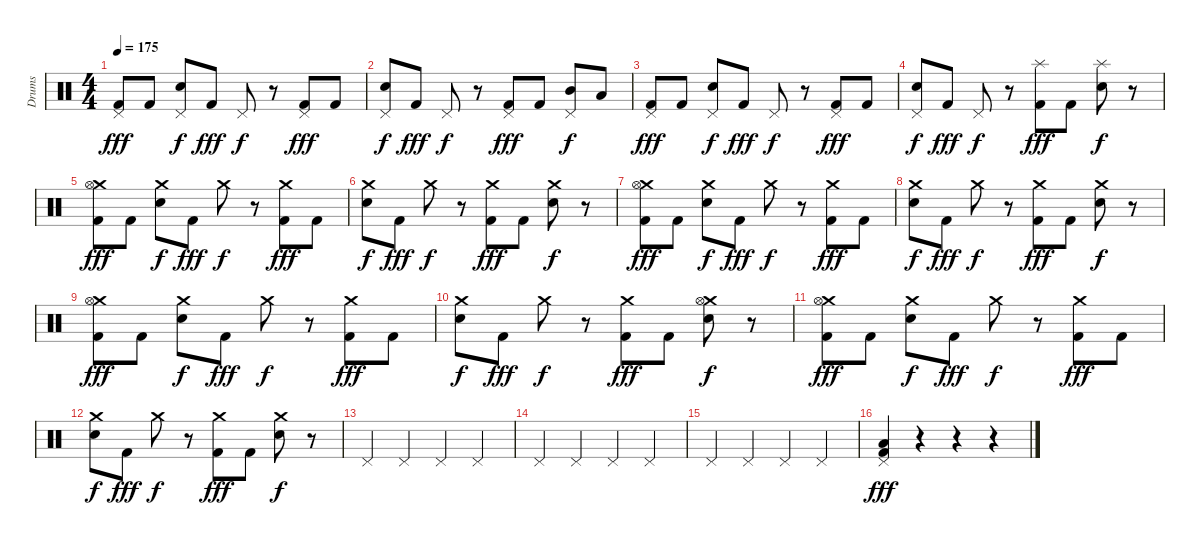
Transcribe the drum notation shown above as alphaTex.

\track ("Drums" "Drums") {instrument percussion}
\staff {score}
\articulation defaults
\ts (4 4)
\tempo 175
\clef neutral
\ks c
("Pedal Hi-Hat (hit)" "Kick (hit) 2").8{dy fff} "Kick (hit) 2".8 ("Pedal Hi-Hat (hit)" "Electric Snare (hit)").8{dy f} "Kick (hit) 2".8{dy fff} "Pedal Hi-Hat (hit)".8{dy f} r.8 ("Pedal Hi-Hat (hit)" "Kick (hit) 2").8{dy fff} "Kick (hit) 2".8 |
("Pedal Hi-Hat (hit)" "Electric Snare (hit)").8{dy f} "Kick (hit) 2".8{dy fff} "Pedal Hi-Hat (hit)".8{dy f} r.8 ("Pedal Hi-Hat (hit)" "Kick (hit) 2").8{dy fff} "Kick (hit) 2".8 ("Pedal Hi-Hat (hit)" "Mid Tom (hit)").8{dy f} "Low Tom (hit)".8 |
("Pedal Hi-Hat (hit)" "Kick (hit) 2").8{dy fff} "Kick (hit) 2".8 ("Pedal Hi-Hat (hit)" "Electric Snare (hit)").8{dy f} "Kick (hit) 2".8{dy fff} "Pedal Hi-Hat (hit)".8{dy f} r.8 ("Pedal Hi-Hat (hit)" "Kick (hit) 2").8{dy fff} "Kick (hit) 2".8 |
("Pedal Hi-Hat (hit)" "Electric Snare (hit)").8{dy f} "Kick (hit) 2".8{dy fff} "Pedal Hi-Hat (hit)".8{dy f} r.8 ("Splash (hit)" "Kick (hit) 2").8{dy fff} "Kick (hit) 2".8 ("Splash (hit)" "Electric Snare (hit)").8{dy f} r.8 |
("Crash medium (hit)" "Hi-Hat (open)" "Kick (hit) 2").8{dy fff} "Kick (hit) 2".8 ("Crash medium (hit)" "Electric Snare (hit)").8{dy f} "Kick (hit) 2".8{dy fff} "Crash medium (hit)".8{dy f} r.8 ("Crash medium (hit)" "Kick (hit) 2").8{dy fff} "Kick (hit) 2".8 |
("Crash medium (hit)" "Electric Snare (hit)").8{dy f} "Kick (hit) 2".8{dy fff} "Crash medium (hit)".8{dy f} r.8 ("Crash medium (hit)" "Kick (hit) 2").8{dy fff} "Kick (hit) 2".8 ("Crash medium (hit)" "Electric Snare (hit)").8{dy f} r.8 |
("Crash medium (hit)" "Hi-Hat (open)" "Kick (hit) 2").8{dy fff} "Kick (hit) 2".8 ("Crash medium (hit)" "Electric Snare (hit)").8{dy f} "Kick (hit) 2".8{dy fff} "Crash medium (hit)".8{dy f} r.8 ("Crash medium (hit)" "Kick (hit) 2").8{dy fff} "Kick (hit) 2".8 |
("Crash medium (hit)" "Electric Snare (hit)").8{dy f} "Kick (hit) 2".8{dy fff} "Crash medium (hit)".8{dy f} r.8 ("Crash medium (hit)" "Kick (hit) 2").8{dy fff} "Kick (hit) 2".8 ("Crash medium (hit)" "Electric Snare (hit)").8{dy f} r.8 |
("Crash medium (hit)" "Hi-Hat (open)" "Kick (hit) 2").8{dy fff} "Kick (hit) 2".8 ("Crash medium (hit)" "Electric Snare (hit)").8{dy f} "Kick (hit) 2".8{dy fff} "Crash medium (hit)".8{dy f} r.8 ("Crash medium (hit)" "Kick (hit) 2").8{dy fff} "Kick (hit) 2".8 |
("Crash medium (hit)" "Electric Snare (hit)").8{dy f} "Kick (hit) 2".8{dy fff} "Crash medium (hit)".8{dy f} r.8 ("Crash medium (hit)" "Kick (hit) 2").8{dy fff} "Kick (hit) 2".8 ("Crash medium (hit)" "Hi-Hat (open)" "Electric Snare (hit)").8{dy f} r.8 |
("Crash medium (hit)" "Hi-Hat (open)" "Kick (hit) 2").8{dy fff} "Kick (hit) 2".8 ("Crash medium (hit)" "Electric Snare (hit)").8{dy f} "Kick (hit) 2".8{dy fff} "Crash medium (hit)".8{dy f} r.8 ("Crash medium (hit)" "Kick (hit) 2").8{dy fff} "Kick (hit) 2".8 |
("Crash medium (hit)" "Electric Snare (hit)").8{dy f} "Kick (hit) 2".8{dy fff} "Crash medium (hit)".8{dy f} r.8 ("Crash medium (hit)" "Kick (hit) 2").8{dy fff} "Kick (hit) 2".8 ("Crash medium (hit)" "Electric Snare (hit)").8{dy f} r.8 |
"Pedal Hi-Hat (hit)".4 "Pedal Hi-Hat (hit)".4 "Pedal Hi-Hat (hit)".4 "Pedal Hi-Hat (hit)".4 |
"Pedal Hi-Hat (hit)".4 "Pedal Hi-Hat (hit)".4 "Pedal Hi-Hat (hit)".4 "Pedal Hi-Hat (hit)".4 |
"Pedal Hi-Hat (hit)".4 "Pedal Hi-Hat (hit)".4 "Pedal Hi-Hat (hit)".4 "Pedal Hi-Hat (hit)".4 |
("Pedal Hi-Hat (hit)" "Low Floor Tom (hit)" "Kick (hit) 2").4{dy fff} r.4 r.4 r.4
